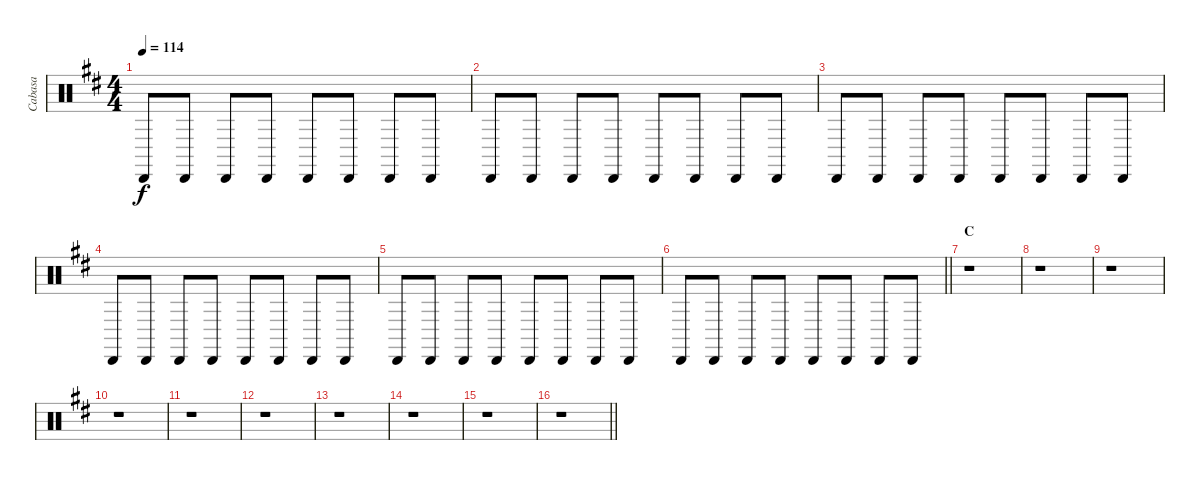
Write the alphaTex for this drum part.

\track ("Cabasa" "Cabasa") {instrument percussion}
\staff {score}
\articulation defaults
\ts (4 4)
\tempo 114
\clef neutral
\ks d "Cabasa (hit)".8{dy f} "Cabasa (hit)".8 "Cabasa (hit)".8 "Cabasa (hit)".8 "Cabasa (hit)".8 "Cabasa (hit)".8 "Cabasa (hit)".8 "Cabasa (hit)".8
|
"Cabasa (hit)".8 "Cabasa (hit)".8 "Cabasa (hit)".8 "Cabasa (hit)".8 "Cabasa (hit)".8 "Cabasa (hit)".8 "Cabasa (hit)".8 "Cabasa (hit)".8 |
"Cabasa (hit)".8 "Cabasa (hit)".8 "Cabasa (hit)".8 "Cabasa (hit)".8 "Cabasa (hit)".8 "Cabasa (hit)".8 "Cabasa (hit)".8 "Cabasa (hit)".8 |
"Cabasa (hit)".8 "Cabasa (hit)".8 "Cabasa (hit)".8 "Cabasa (hit)".8 "Cabasa (hit)".8 "Cabasa (hit)".8 "Cabasa (hit)".8 "Cabasa (hit)".8 |
"Cabasa (hit)".8 "Cabasa (hit)".8 "Cabasa (hit)".8 "Cabasa (hit)".8 "Cabasa (hit)".8 "Cabasa (hit)".8 "Cabasa (hit)".8 "Cabasa (hit)".8 |
\barLineRight lightlight "Cabasa (hit)".8 "Cabasa (hit)".8 "Cabasa (hit)".8 "Cabasa (hit)".8 "Cabasa (hit)".8 "Cabasa (hit)".8 "Cabasa (hit)".8 "Cabasa (hit)".8
|
\section ("" "C")
r.1 |
r.1 |
r.1 |
r.1 |
r.1 |
r.1 |
r.1 |
r.1 |
r.1 |
\barLineRight lightlight
r.1
